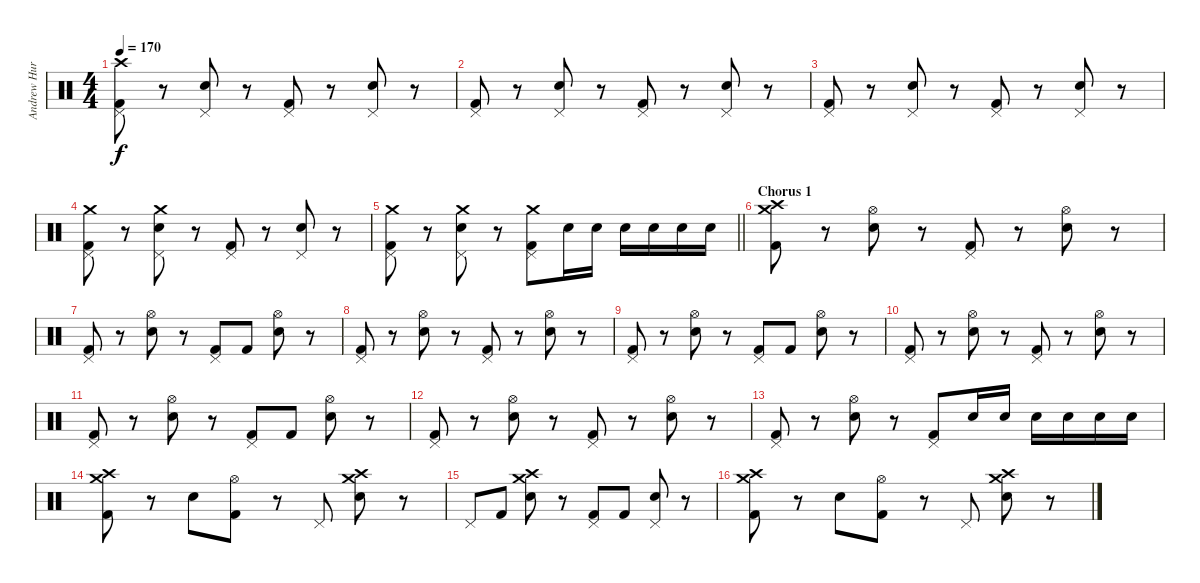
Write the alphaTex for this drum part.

\track ("Andrew Hurley (Drums)" "Andrew Hur") {instrument percussion}
\staff {score}
\articulation defaults
\ts (4 4)
\tempo 170
\clef neutral
\ks c
("Crash high (hit)" "Pedal Hi-Hat (hit)" "Kick (hit) 2").8{dy f} r.8 ("Pedal Hi-Hat (hit)" "Electric Snare (hit)").8 r.8 ("Pedal Hi-Hat (hit)" "Kick (hit) 2").8 r.8 ("Pedal Hi-Hat (hit)" "Electric Snare (hit)").8 r.8 |
("Pedal Hi-Hat (hit)" "Kick (hit) 2").8 r.8 ("Pedal Hi-Hat (hit)" "Electric Snare (hit)").8 r.8 ("Pedal Hi-Hat (hit)" "Kick (hit) 2").8 r.8 ("Pedal Hi-Hat (hit)" "Electric Snare (hit)").8 r.8 |
("Pedal Hi-Hat (hit)" "Kick (hit) 2").8 r.8 ("Pedal Hi-Hat (hit)" "Electric Snare (hit)").8 r.8 ("Pedal Hi-Hat (hit)" "Kick (hit) 2").8 r.8 ("Pedal Hi-Hat (hit)" "Electric Snare (hit)").8 r.8 |
("Crash medium (hit)" "Pedal Hi-Hat (hit)" "Kick (hit) 2").8 r.8 ("Crash medium (hit)" "Pedal Hi-Hat (hit)" "Electric Snare (hit)").8 r.8 ("Pedal Hi-Hat (hit)" "Kick (hit) 2").8 r.8 ("Pedal Hi-Hat (hit)" "Electric Snare (hit)").8 r.8 |
\barLineRight lightlight
("Crash medium (hit)" "Pedal Hi-Hat (hit)" "Kick (hit) 2").8 r.8 ("Crash medium (hit)" "Pedal Hi-Hat (hit)" "Electric Snare (hit)").8 r.8 ("Crash medium (hit)" "Pedal Hi-Hat (hit)" "Kick (hit) 2").8 "Electric Snare (hit)".16 "Electric Snare (hit)".16 "Electric Snare (hit)".16 "Electric Snare (hit)".16 "Electric Snare (hit)".16 "Electric Snare (hit)".16 |
\section ("" "Chorus 1")
("Crash high (hit)" "Crash medium (hit)" "Kick (hit) 2").8 r.8 ("Hi-Hat (open)" "Electric Snare (hit)").8 r.8 ("Pedal Hi-Hat (hit)" "Kick (hit) 2").8 r.8 ("Hi-Hat (open)" "Electric Snare (hit)").8 r.8 |
("Pedal Hi-Hat (hit)" "Kick (hit) 2").8 r.8 ("Hi-Hat (open)" "Electric Snare (hit)").8 r.8 ("Pedal Hi-Hat (hit)" "Kick (hit) 2").8 "Kick (hit) 2".8 ("Hi-Hat (open)" "Electric Snare (hit)").8 r.8 |
("Pedal Hi-Hat (hit)" "Kick (hit) 2").8 r.8 ("Hi-Hat (open)" "Electric Snare (hit)").8 r.8 ("Pedal Hi-Hat (hit)" "Kick (hit) 2").8 r.8 ("Hi-Hat (open)" "Electric Snare (hit)").8 r.8 |
("Pedal Hi-Hat (hit)" "Kick (hit) 2").8 r.8 ("Hi-Hat (open)" "Electric Snare (hit)").8 r.8 ("Pedal Hi-Hat (hit)" "Kick (hit) 2").8 "Kick (hit) 2".8 ("Hi-Hat (open)" "Electric Snare (hit)").8 r.8 |
("Pedal Hi-Hat (hit)" "Kick (hit) 2").8 r.8 ("Hi-Hat (open)" "Electric Snare (hit)").8 r.8 ("Pedal Hi-Hat (hit)" "Kick (hit) 2").8 r.8 ("Hi-Hat (open)" "Electric Snare (hit)").8 r.8 |
("Pedal Hi-Hat (hit)" "Kick (hit) 2").8 r.8 ("Hi-Hat (open)" "Electric Snare (hit)").8 r.8 ("Pedal Hi-Hat (hit)" "Kick (hit) 2").8 "Kick (hit) 2".8 ("Hi-Hat (open)" "Electric Snare (hit)").8 r.8 |
("Pedal Hi-Hat (hit)" "Kick (hit) 2").8 r.8 ("Hi-Hat (open)" "Electric Snare (hit)").8 r.8 ("Pedal Hi-Hat (hit)" "Kick (hit) 2").8 r.8 ("Hi-Hat (open)" "Electric Snare (hit)").8 r.8 |
("Pedal Hi-Hat (hit)" "Kick (hit) 2").8 r.8 ("Hi-Hat (open)" "Electric Snare (hit)").8 r.8 ("Pedal Hi-Hat (hit)" "Kick (hit) 2").8 "Electric Snare (hit)".16 "Electric Snare (hit)".16 "Electric Snare (hit)".16 "Electric Snare (hit)".16 "Electric Snare (hit)".16 "Electric Snare (hit)".16 |
("Crash high (hit)" "Crash medium (hit)" "Kick (hit) 2").8 r.8 "Electric Snare (hit)".8 ("Hi-Hat (open)" "Kick (hit) 2").8 r.8 "Pedal Hi-Hat (hit)".8 ("Crash high (hit)" "Crash medium (hit)" "Electric Snare (hit)").8 r.8 |
"Pedal Hi-Hat (hit)".8 "Kick (hit) 2".8 ("Crash medium (hit)" "Crash high (hit)" "Electric Snare (hit)").8 r.8 ("Pedal Hi-Hat (hit)" "Kick (hit) 2").8 "Kick (hit) 2".8 ("Pedal Hi-Hat (hit)" "Electric Snare (hit)").8 r.8 |
("Crash high (hit)" "Crash medium (hit)" "Kick (hit) 2").8 r.8 "Electric Snare (hit)".8 ("Hi-Hat (open)" "Kick (hit) 2").8 r.8 "Pedal Hi-Hat (hit)".8 ("Crash high (hit)" "Crash medium (hit)" "Electric Snare (hit)").8 r.8
